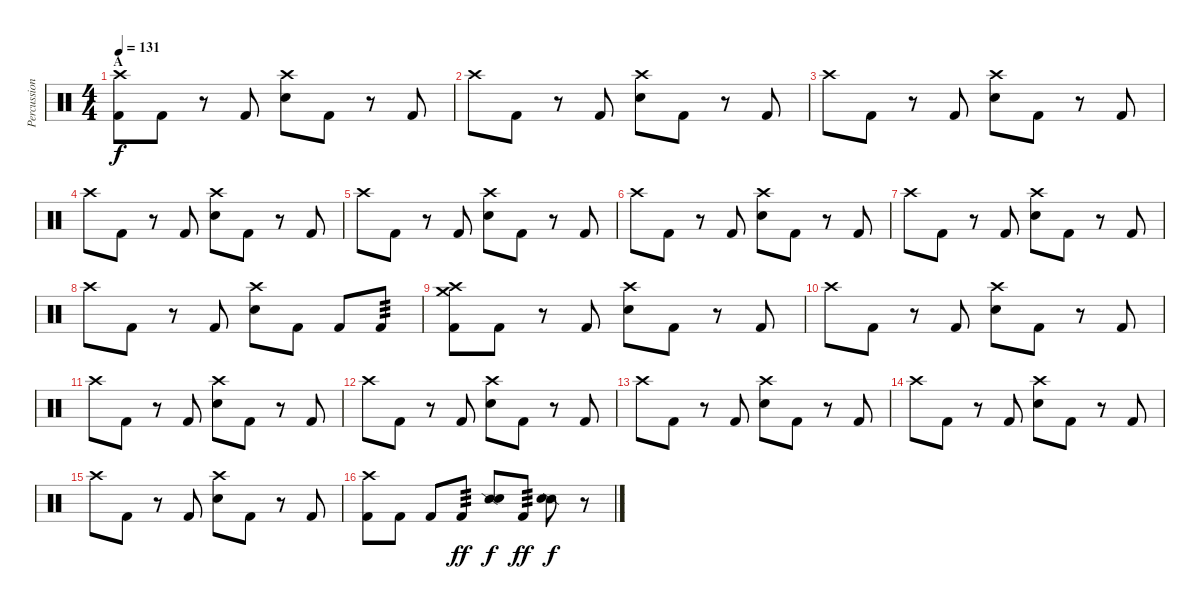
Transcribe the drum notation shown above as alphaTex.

\track ("Percussion" "Percussion") {instrument percussion}
\staff {score}
\articulation defaults
\ts (4 4)
\section ("" "A")
\tempo 131
\clef neutral
\ks c
("Crash high (hit)" "Kick (hit) 2").8{dy f} "Kick (hit) 2".8 r.8 "Kick (hit) 2".8 ("Crash high (hit)" "Snare (hit) 2").8 "Kick (hit) 2".8 r.8 "Kick (hit) 2".8 |
"Crash high (hit)".8 "Kick (hit) 2".8 r.8 "Kick (hit) 2".8 ("Crash high (hit)" "Snare (hit) 2").8 "Kick (hit) 2".8 r.8 "Kick (hit) 2".8 |
"Crash high (hit)".8 "Kick (hit) 2".8 r.8 "Kick (hit) 2".8 ("Crash high (hit)" "Snare (hit) 2").8 "Kick (hit) 2".8 r.8 "Kick (hit) 2".8 |
"Crash high (hit)".8 "Kick (hit) 2".8 r.8 "Kick (hit) 2".8 ("Crash high (hit)" "Snare (hit) 2").8 "Kick (hit) 2".8 r.8 "Kick (hit) 2".8 |
"Crash high (hit)".8 "Kick (hit) 2".8 r.8 "Kick (hit) 2".8 ("Crash high (hit)" "Snare (hit) 2").8 "Kick (hit) 2".8 r.8 "Kick (hit) 2".8 |
"Crash high (hit)".8 "Kick (hit) 2".8 r.8 "Kick (hit) 2".8 ("Crash high (hit)" "Snare (hit) 2").8 "Kick (hit) 2".8 r.8 "Kick (hit) 2".8 |
"Crash high (hit)".8 "Kick (hit) 2".8 r.8 "Kick (hit) 2".8 ("Crash high (hit)" "Snare (hit) 2").8 "Kick (hit) 2".8 r.8 "Kick (hit) 2".8 |
"Crash high (hit)".8 "Kick (hit) 2".8 r.8 "Kick (hit) 2".8 ("Crash high (hit)" "Snare (hit) 2").8 "Kick (hit) 2".8 "Kick (hit) 2".8 "Kick (hit) 2".8{tp 3} |
("Crash high (hit)" "Crash medium (hit)" "Kick (hit) 2").8 "Kick (hit) 2".8 r.8 "Kick (hit) 2".8 ("Crash high (hit)" "Snare (hit) 2").8 "Kick (hit) 2".8 r.8 "Kick (hit) 2".8 |
"Crash high (hit)".8 "Kick (hit) 2".8 r.8 "Kick (hit) 2".8 ("Crash high (hit)" "Snare (hit) 2").8 "Kick (hit) 2".8 r.8 "Kick (hit) 2".8 |
"Crash high (hit)".8 "Kick (hit) 2".8 r.8 "Kick (hit) 2".8 ("Crash high (hit)" "Snare (hit) 2").8 "Kick (hit) 2".8 r.8 "Kick (hit) 2".8 |
"Crash high (hit)".8 "Kick (hit) 2".8 r.8 "Kick (hit) 2".8 ("Crash high (hit)" "Snare (hit) 2").8 "Kick (hit) 2".8 r.8 "Kick (hit) 2".8 |
"Crash high (hit)".8 "Kick (hit) 2".8 r.8 "Kick (hit) 2".8 ("Crash high (hit)" "Snare (hit) 2").8 "Kick (hit) 2".8 r.8 "Kick (hit) 2".8 |
"Crash high (hit)".8 "Kick (hit) 2".8 r.8 "Kick (hit) 2".8 ("Crash high (hit)" "Snare (hit) 2").8 "Kick (hit) 2".8 r.8 "Kick (hit) 2".8 |
"Crash high (hit)".8 "Kick (hit) 2".8 r.8 "Kick (hit) 2".8 ("Crash high (hit)" "Snare (hit) 2").8 "Kick (hit) 2".8 r.8 "Kick (hit) 2".8 |
("Crash high (hit)" "Kick (hit) 2").8 "Kick (hit) 2".8 "Kick (hit) 2".8 "Kick (hit) 2".8{tp 3 dy ff} ("Snare (side stick) 2" "Snare (hit) 2").8{dy f} "Kick (hit) 2".8{tp 3 dy ff} ("Snare (side stick) 2" "Snare (hit) 2").8{dy f} r.8
